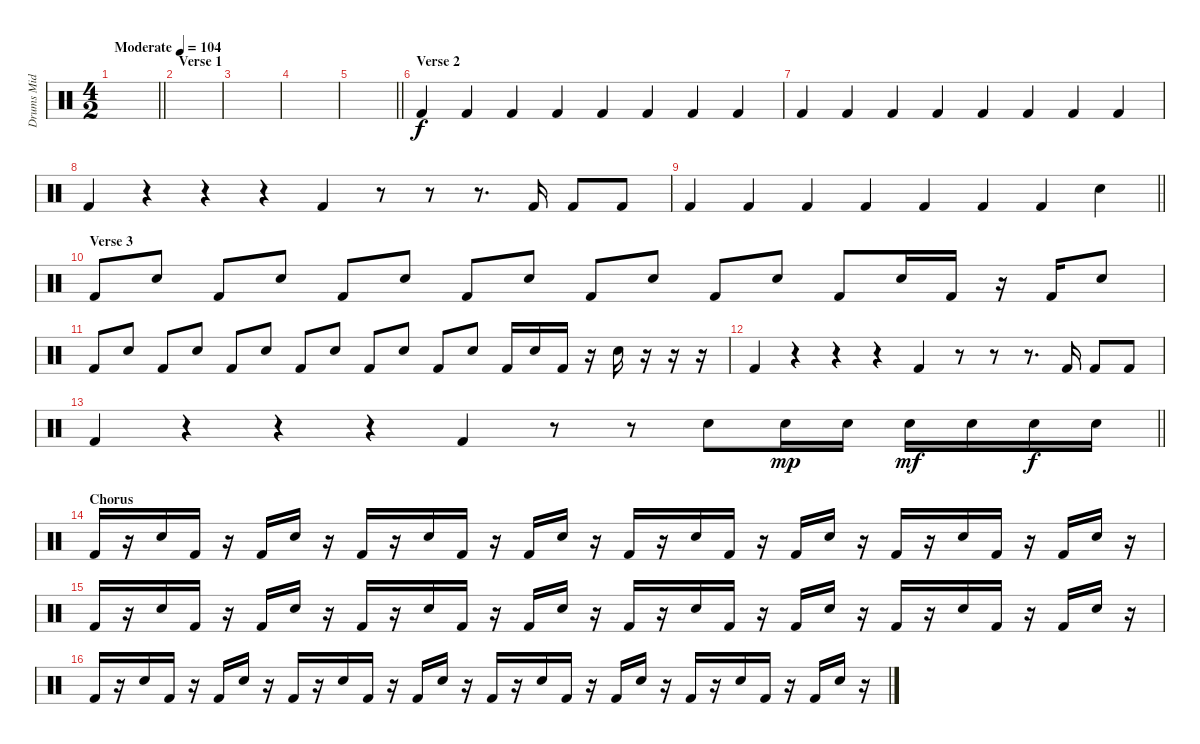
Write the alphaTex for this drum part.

\track ("Drums Mid" "Drums Mid") {instrument percussion}
\staff {score}
\articulation defaults
\ts (4 2)
\tempo (104 "Moderate")
\clef neutral
\barLineRight lightlight
\ks c
|
\section ("" "Verse 1")
|
|
|
\barLineRight lightlight
|
\section ("" "Verse 2")
"Kick (hit) 2".4 "Kick (hit) 2".4 "Kick (hit) 2".4 "Kick (hit) 2".4 "Kick (hit) 2".4 "Kick (hit) 2".4 "Kick (hit) 2".4 "Kick (hit) 2".4 |
"Kick (hit) 2".4 "Kick (hit) 2".4 "Kick (hit) 2".4 "Kick (hit) 2".4 "Kick (hit) 2".4 "Kick (hit) 2".4 "Kick (hit) 2".4 "Kick (hit) 2".4 |
"Kick (hit) 2".4 r.4 r.4 r.4 "Kick (hit) 2".4 r.8 r.8 r.8{d} "Kick (hit) 2".16 "Kick (hit) 2".8 "Kick (hit) 2".8 |
\barLineRight lightlight "Kick (hit) 2".4 "Kick (hit) 2".4 "Kick (hit) 2".4 "Kick (hit) 2".4 "Kick (hit) 2".4 "Kick (hit) 2".4 "Kick (hit) 2".4 "Snare (hit) 2".4
|
\section ("" "Verse 3")
"Kick (hit) 2".8 "Snare (hit) 2".8 "Kick (hit) 2".8 "Snare (hit) 2".8 "Kick (hit) 2".8 "Snare (hit) 2".8 "Kick (hit) 2".8 "Snare (hit) 2".8 "Kick (hit) 2".8 "Snare (hit) 2".8 "Kick (hit) 2".8 "Snare (hit) 2".8 "Kick (hit) 2".8 "Snare (hit) 2".16 "Kick (hit) 2".16 r.16 "Kick (hit) 2".16 "Snare (hit) 2".8 |
"Kick (hit) 2".8 "Snare (hit) 2".8 "Kick (hit) 2".8 "Snare (hit) 2".8 "Kick (hit) 2".8 "Snare (hit) 2".8 "Kick (hit) 2".8 "Snare (hit) 2".8 "Kick (hit) 2".8 "Snare (hit) 2".8 "Kick (hit) 2".8 "Snare (hit) 2".8 "Kick (hit) 2".16 "Snare (hit) 2".16 "Kick (hit) 2".16 r.16 "Snare (hit) 2".16 r.16 r.16 r.16 |
"Kick (hit) 2".4 r.4 r.4 r.4 "Kick (hit) 2".4 r.8 r.8 r.8{d} "Kick (hit) 2".16 "Kick (hit) 2".8 "Kick (hit) 2".8 |
\barLineRight lightlight "Kick (hit) 2".4
r.4 r.4 r.4 "Kick (hit) 2".4 r.8 r.8 "Snare (hit) 2".8 "Snare (hit) 2".16{dy mp} "Snare (hit) 2".16 "Snare (hit) 2".16{dy mf} "Snare (hit) 2".16 "Snare (hit) 2".16{dy f} "Snare (hit) 2".16 |
\section ("" "Chorus")
"Kick (hit) 2".16 r.16 "Snare (hit) 2".16 "Kick (hit) 2".16 r.16 "Kick (hit) 2".16 "Snare (hit) 2".16 r.16 "Kick (hit) 2".16 r.16 "Snare (hit) 2".16 "Kick (hit) 2".16 r.16 "Kick (hit) 2".16 "Snare (hit) 2".16 r.16 "Kick (hit) 2".16 r.16 "Snare (hit) 2".16 "Kick (hit) 2".16 r.16 "Kick (hit) 2".16 "Snare (hit) 2".16 r.16 "Kick (hit) 2".16 r.16 "Snare (hit) 2".16 "Kick (hit) 2".16 r.16 "Kick (hit) 2".16 "Snare (hit) 2".16 r.16 |
"Kick (hit) 2".16 r.16 "Snare (hit) 2".16 "Kick (hit) 2".16 r.16 "Kick (hit) 2".16 "Snare (hit) 2".16 r.16 "Kick (hit) 2".16 r.16 "Snare (hit) 2".16 "Kick (hit) 2".16 r.16 "Kick (hit) 2".16 "Snare (hit) 2".16 r.16 "Kick (hit) 2".16 r.16 "Snare (hit) 2".16 "Kick (hit) 2".16 r.16 "Kick (hit) 2".16 "Snare (hit) 2".16 r.16 "Kick (hit) 2".16 r.16 "Snare (hit) 2".16 "Kick (hit) 2".16 r.16 "Kick (hit) 2".16 "Snare (hit) 2".16 r.16 |
"Kick (hit) 2".16 r.16 "Snare (hit) 2".16 "Kick (hit) 2".16 r.16 "Kick (hit) 2".16 "Snare (hit) 2".16 r.16 "Kick (hit) 2".16 r.16 "Snare (hit) 2".16 "Kick (hit) 2".16 r.16 "Kick (hit) 2".16 "Snare (hit) 2".16 r.16 "Kick (hit) 2".16 r.16 "Snare (hit) 2".16 "Kick (hit) 2".16 r.16 "Kick (hit) 2".16 "Snare (hit) 2".16 r.16 "Kick (hit) 2".16 r.16 "Snare (hit) 2".16 "Kick (hit) 2".16 r.16 "Kick (hit) 2".16 "Snare (hit) 2".16 r.16
